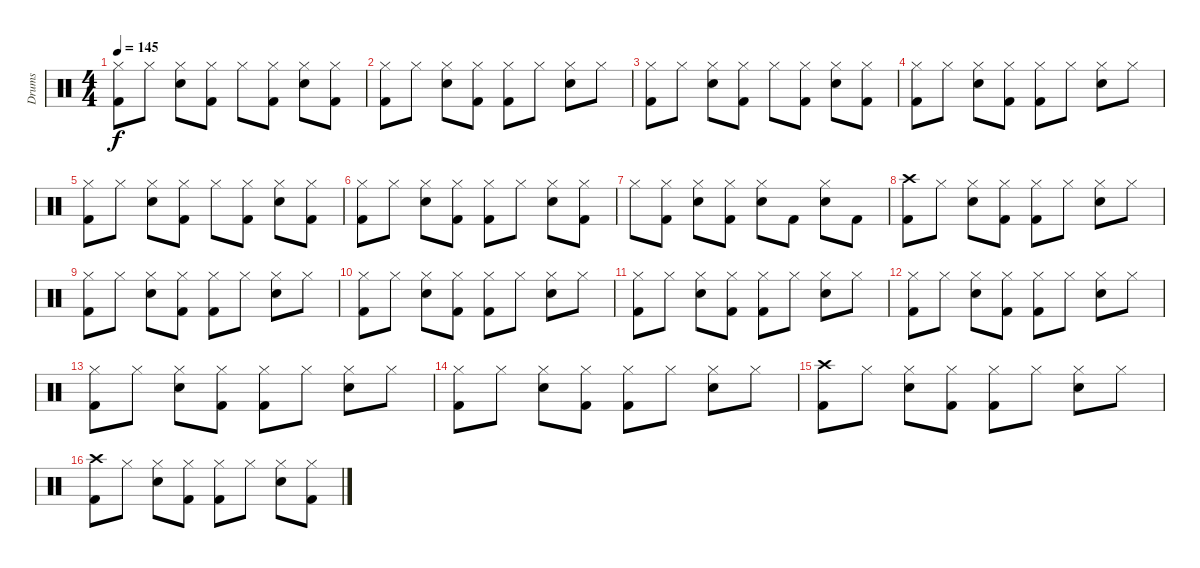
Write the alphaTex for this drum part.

\track ("Drums" "Drums") {instrument percussion}
\staff {score}
\articulation defaults
\ts (4 4)
\tempo 145
\clef neutral
\ks c
("Hi-Hat (closed)" "Kick (hit) 2").8{dy f} "Hi-Hat (closed)".8 ("Hi-Hat (closed)" "Electric Snare (hit)").8 ("Hi-Hat (closed)" "Kick (hit) 2").8 "Hi-Hat (closed)".8 ("Hi-Hat (closed)" "Kick (hit) 2").8 ("Hi-Hat (closed)" "Electric Snare (hit)").8 ("Hi-Hat (closed)" "Kick (hit) 2").8 |
("Hi-Hat (closed)" "Kick (hit) 2").8 "Hi-Hat (closed)".8 ("Hi-Hat (closed)" "Electric Snare (hit)").8 ("Hi-Hat (closed)" "Kick (hit) 2").8 ("Hi-Hat (closed)" "Kick (hit) 2").8 "Hi-Hat (closed)".8 ("Hi-Hat (closed)" "Electric Snare (hit)").8 "Hi-Hat (closed)".8 |
("Hi-Hat (closed)" "Kick (hit) 2").8 "Hi-Hat (closed)".8 ("Hi-Hat (closed)" "Electric Snare (hit)").8 ("Hi-Hat (closed)" "Kick (hit) 2").8 "Hi-Hat (closed)".8 ("Hi-Hat (closed)" "Kick (hit) 2").8 ("Hi-Hat (closed)" "Electric Snare (hit)").8 ("Hi-Hat (closed)" "Kick (hit) 2").8 |
("Hi-Hat (closed)" "Kick (hit) 2").8 "Hi-Hat (closed)".8 ("Hi-Hat (closed)" "Electric Snare (hit)").8 ("Hi-Hat (closed)" "Kick (hit) 2").8 ("Hi-Hat (closed)" "Kick (hit) 2").8 "Hi-Hat (closed)".8 ("Hi-Hat (closed)" "Electric Snare (hit)").8 "Hi-Hat (closed)".8 |
("Hi-Hat (closed)" "Kick (hit) 2").8 "Hi-Hat (closed)".8 ("Hi-Hat (closed)" "Electric Snare (hit)").8 ("Hi-Hat (closed)" "Kick (hit) 2").8 "Hi-Hat (closed)".8 ("Hi-Hat (closed)" "Kick (hit) 2").8 ("Hi-Hat (closed)" "Electric Snare (hit)").8 ("Hi-Hat (closed)" "Kick (hit) 2").8 |
("Hi-Hat (closed)" "Kick (hit) 2").8 "Hi-Hat (closed)".8 ("Hi-Hat (closed)" "Electric Snare (hit)").8 ("Hi-Hat (closed)" "Kick (hit) 2").8 ("Hi-Hat (closed)" "Kick (hit) 2").8 "Hi-Hat (closed)".8 ("Hi-Hat (closed)" "Electric Snare (hit)").8 ("Hi-Hat (closed)" "Kick (hit) 2").8 |
"Hi-Hat (closed)".8 ("Hi-Hat (closed)" "Kick (hit) 2").8 ("Hi-Hat (closed)" "Electric Snare (hit)").8 ("Hi-Hat (closed)" "Kick (hit) 2").8 ("Hi-Hat (closed)" "Electric Snare (hit)").8 "Kick (hit) 2".8 ("Hi-Hat (closed)" "Electric Snare (hit)").8 "Kick (hit) 2".8 |
("Crash high (hit)" "Kick (hit) 2").8 "Hi-Hat (closed)".8 ("Hi-Hat (closed)" "Electric Snare (hit)").8 ("Hi-Hat (closed)" "Kick (hit) 2").8 ("Hi-Hat (closed)" "Kick (hit) 2").8 "Hi-Hat (closed)".8 ("Hi-Hat (closed)" "Electric Snare (hit)").8 "Hi-Hat (closed)".8 |
("Hi-Hat (closed)" "Kick (hit) 2").8 "Hi-Hat (closed)".8 ("Hi-Hat (closed)" "Electric Snare (hit)").8 ("Hi-Hat (closed)" "Kick (hit) 2").8 ("Hi-Hat (closed)" "Kick (hit) 2").8 "Hi-Hat (closed)".8 ("Hi-Hat (closed)" "Electric Snare (hit)").8 "Hi-Hat (closed)".8 |
("Hi-Hat (closed)" "Kick (hit) 2").8 "Hi-Hat (closed)".8 ("Hi-Hat (closed)" "Electric Snare (hit)").8 ("Hi-Hat (closed)" "Kick (hit) 2").8 ("Hi-Hat (closed)" "Kick (hit) 2").8 "Hi-Hat (closed)".8 ("Hi-Hat (closed)" "Electric Snare (hit)").8 "Hi-Hat (closed)".8 |
("Hi-Hat (closed)" "Kick (hit) 2").8 "Hi-Hat (closed)".8 ("Hi-Hat (closed)" "Electric Snare (hit)").8 ("Hi-Hat (closed)" "Kick (hit) 2").8 ("Hi-Hat (closed)" "Kick (hit) 2").8 "Hi-Hat (closed)".8 ("Hi-Hat (closed)" "Electric Snare (hit)").8 "Hi-Hat (closed)".8 |
("Hi-Hat (closed)" "Kick (hit) 2").8 "Hi-Hat (closed)".8 ("Hi-Hat (closed)" "Electric Snare (hit)").8 ("Hi-Hat (closed)" "Kick (hit) 2").8 ("Hi-Hat (closed)" "Kick (hit) 2").8 "Hi-Hat (closed)".8 ("Hi-Hat (closed)" "Electric Snare (hit)").8 "Hi-Hat (closed)".8 |
("Hi-Hat (closed)" "Kick (hit) 2").8 "Hi-Hat (closed)".8 ("Hi-Hat (closed)" "Electric Snare (hit)").8 ("Hi-Hat (closed)" "Kick (hit) 2").8 ("Hi-Hat (closed)" "Kick (hit) 2").8 "Hi-Hat (closed)".8 ("Hi-Hat (closed)" "Electric Snare (hit)").8 "Hi-Hat (closed)".8 |
("Hi-Hat (closed)" "Kick (hit) 2").8 "Hi-Hat (closed)".8 ("Hi-Hat (closed)" "Electric Snare (hit)").8 ("Hi-Hat (closed)" "Kick (hit) 2").8 ("Hi-Hat (closed)" "Kick (hit) 2").8 "Hi-Hat (closed)".8 ("Hi-Hat (closed)" "Electric Snare (hit)").8 "Hi-Hat (closed)".8 |
("Crash high (hit)" "Kick (hit) 2").8 "Hi-Hat (closed)".8 ("Hi-Hat (closed)" "Electric Snare (hit)").8 ("Hi-Hat (closed)" "Kick (hit) 2").8 ("Hi-Hat (closed)" "Kick (hit) 2").8 "Hi-Hat (closed)".8 ("Hi-Hat (closed)" "Electric Snare (hit)").8 "Hi-Hat (closed)".8 |
("Crash high (hit)" "Kick (hit) 2").8 "Hi-Hat (closed)".8 ("Hi-Hat (closed)" "Electric Snare (hit)").8 ("Hi-Hat (closed)" "Kick (hit) 2").8 ("Hi-Hat (closed)" "Kick (hit) 2").8 "Hi-Hat (closed)".8 ("Hi-Hat (closed)" "Electric Snare (hit)").8 ("Hi-Hat (closed)" "Kick (hit) 2").8
